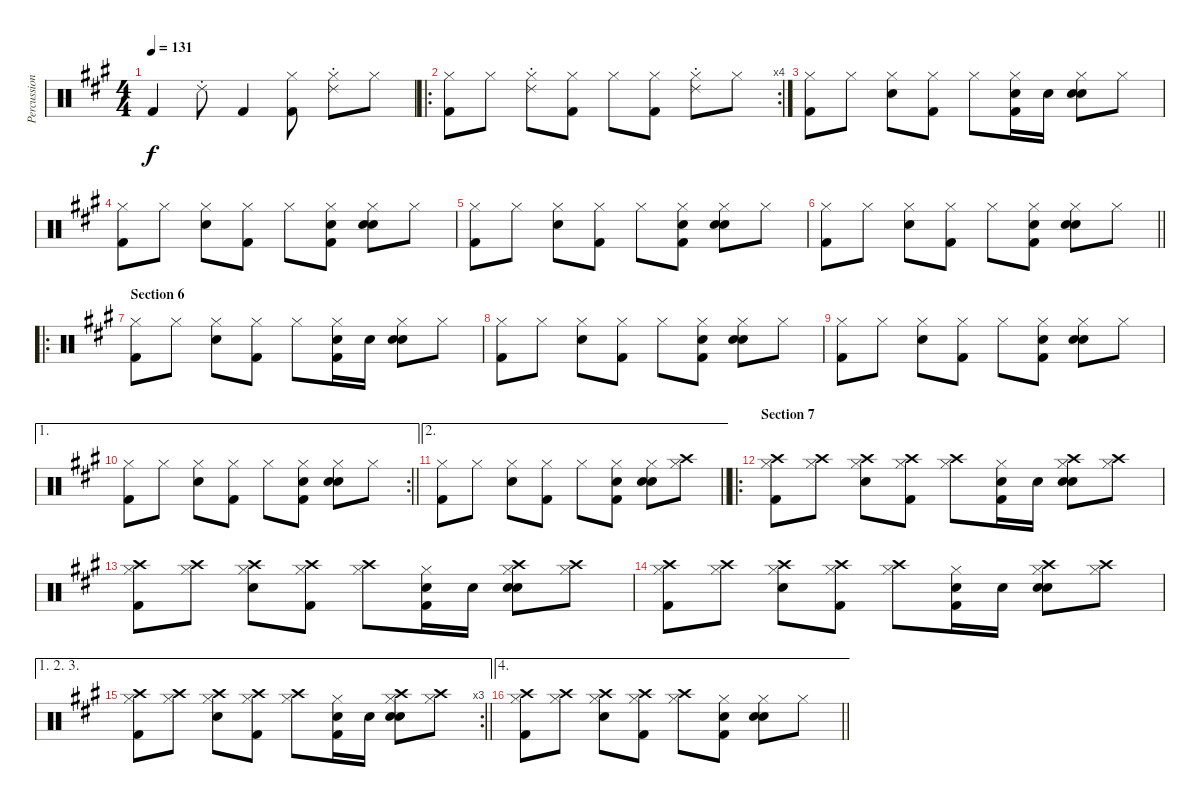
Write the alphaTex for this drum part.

\track ("Percussion" "Percussion") {instrument percussion bank 2}
\staff {score}
\articulation defaults
\ts (4 4)
\tempo 131
\clef neutral
\ks f#minor "Kick (hit) 2".4{dy f} "Ride (choke) 2".8 "Kick (hit) 2".4
("Hi-Hat (closed)" "Kick (hit) 2").8 ("Hi-Hat (closed)" "Ride (choke) 2").8 "Hi-Hat (closed)".8 |
\ro
\rc 4
("Hi-Hat (closed)" "Kick (hit) 2").8 "Hi-Hat (closed)".8 ("Hi-Hat (closed)" "Ride (choke) 2").8 ("Hi-Hat (closed)" "Kick (hit) 2").8 "Hi-Hat (closed)".8 ("Hi-Hat (closed)" "Kick (hit) 2").8 ("Hi-Hat (closed)" "Ride (choke) 2").8 "Hi-Hat (closed)".8 |
("Hi-Hat (closed)" "Kick (hit) 2").8 "Hi-Hat (closed)".8 ("Hi-Hat (closed)" "Snare (hit) 2").8 ("Hi-Hat (closed)" "Kick (hit) 2").8 "Hi-Hat (closed)".8 ("Hi-Hat (closed)" "Hand Clap (hit)" "Kick (hit) 2").16 "Hand Clap (hit)".16 ("Hi-Hat (closed)" "Hand Clap (hit)" "Snare (hit) 2").8 "Hi-Hat (closed)".8 |
("Hi-Hat (closed)" "Kick (hit) 2").8 "Hi-Hat (closed)".8 ("Hi-Hat (closed)" "Snare (hit) 2").8 ("Hi-Hat (closed)" "Kick (hit) 2").8 "Hi-Hat (closed)".8 ("Hi-Hat (closed)" "Hand Clap (hit)" "Kick (hit) 2").8 ("Hi-Hat (closed)" "Hand Clap (hit)" "Snare (hit) 2").8 "Hi-Hat (closed)".8 |
("Hi-Hat (closed)" "Kick (hit) 2").8 "Hi-Hat (closed)".8 ("Hi-Hat (closed)" "Snare (hit) 2").8 ("Hi-Hat (closed)" "Kick (hit) 2").8 "Hi-Hat (closed)".8 ("Hi-Hat (closed)" "Hand Clap (hit)" "Kick (hit) 2").8 ("Hi-Hat (closed)" "Hand Clap (hit)" "Snare (hit) 2").8 "Hi-Hat (closed)".8 |
\barLineRight lightlight
("Hi-Hat (closed)" "Kick (hit) 2").8 "Hi-Hat (closed)".8 ("Hi-Hat (closed)" "Snare (hit) 2").8 ("Hi-Hat (closed)" "Kick (hit) 2").8 "Hi-Hat (closed)".8 ("Hi-Hat (closed)" "Hand Clap (hit)" "Kick (hit) 2").8 ("Hi-Hat (closed)" "Hand Clap (hit)" "Snare (hit) 2").8 "Hi-Hat (closed)".8 |
\ro
\section ("" "Section 6")
("Hi-Hat (closed)" "Kick (hit) 2").8 "Hi-Hat (closed)".8 ("Hi-Hat (closed)" "Snare (hit) 2").8 ("Hi-Hat (closed)" "Kick (hit) 2").8 "Hi-Hat (closed)".8 ("Hi-Hat (closed)" "Hand Clap (hit)" "Kick (hit) 2").16 "Hand Clap (hit)".16 ("Hi-Hat (closed)" "Hand Clap (hit)" "Snare (hit) 2").8 "Hi-Hat (closed)".8 |
("Hi-Hat (closed)" "Kick (hit) 2").8 "Hi-Hat (closed)".8 ("Hi-Hat (closed)" "Snare (hit) 2").8 ("Hi-Hat (closed)" "Kick (hit) 2").8 "Hi-Hat (closed)".8 ("Hi-Hat (closed)" "Hand Clap (hit)" "Kick (hit) 2").8 ("Hi-Hat (closed)" "Hand Clap (hit)" "Snare (hit) 2").8 "Hi-Hat (closed)".8 |
("Hi-Hat (closed)" "Kick (hit) 2").8 "Hi-Hat (closed)".8 ("Hi-Hat (closed)" "Snare (hit) 2").8 ("Hi-Hat (closed)" "Kick (hit) 2").8 "Hi-Hat (closed)".8 ("Hi-Hat (closed)" "Hand Clap (hit)" "Kick (hit) 2").8 ("Hi-Hat (closed)" "Hand Clap (hit)" "Snare (hit) 2").8 "Hi-Hat (closed)".8 |
\ae 1
\rc 2
\barLineRight lightlight
("Hi-Hat (closed)" "Kick (hit) 2").8 "Hi-Hat (closed)".8 ("Hi-Hat (closed)" "Snare (hit) 2").8 ("Hi-Hat (closed)" "Kick (hit) 2").8 "Hi-Hat (closed)".8 ("Hi-Hat (closed)" "Hand Clap (hit)" "Kick (hit) 2").8 ("Hi-Hat (closed)" "Hand Clap (hit)" "Snare (hit) 2").8 "Hi-Hat (closed)".8 |
\ae 2
\barLineRight lightlight
("Hi-Hat (closed)" "Kick (hit) 2").8 "Hi-Hat (closed)".8 ("Hi-Hat (closed)" "Snare (hit) 2").8 ("Hi-Hat (closed)" "Kick (hit) 2").8 "Hi-Hat (closed)".8 ("Hi-Hat (closed)" "Hand Clap (hit)" "Kick (hit) 2").8 ("Hi-Hat (closed)" "Hand Clap (hit)" "Snare (hit) 2").8 ("Crash high (hit)" "Hi-Hat (closed)").8 |
\ro
\section ("" "Section 7")
("Crash high (hit)" "Hi-Hat (closed)" "Kick (hit) 2").8 ("Crash high (hit)" "Hi-Hat (closed)").8 ("Crash high (hit)" "Hi-Hat (closed)" "Snare (hit) 2").8 ("Crash high (hit)" "Hi-Hat (closed)" "Kick (hit) 2").8 ("Crash high (hit)" "Hi-Hat (closed)").8 ("Hi-Hat (closed)" "Hand Clap (hit)" "Kick (hit) 2").16 "Hand Clap (hit)".16 ("Crash high (hit)" "Hi-Hat (closed)" "Hand Clap (hit)" "Snare (hit) 2").8 ("Crash high (hit)" "Hi-Hat (closed)").8 |
("Crash high (hit)" "Hi-Hat (closed)" "Kick (hit) 2").8 ("Crash high (hit)" "Hi-Hat (closed)").8 ("Crash high (hit)" "Hi-Hat (closed)" "Snare (hit) 2").8 ("Crash high (hit)" "Hi-Hat (closed)" "Kick (hit) 2").8 ("Crash high (hit)" "Hi-Hat (closed)").8 ("Hi-Hat (closed)" "Hand Clap (hit)" "Kick (hit) 2").16 "Hand Clap (hit)".16 ("Crash high (hit)" "Hi-Hat (closed)" "Hand Clap (hit)" "Snare (hit) 2").8 ("Crash high (hit)" "Hi-Hat (closed)").8 |
("Crash high (hit)" "Hi-Hat (closed)" "Kick (hit) 2").8 ("Crash high (hit)" "Hi-Hat (closed)").8 ("Crash high (hit)" "Hi-Hat (closed)" "Snare (hit) 2").8 ("Crash high (hit)" "Hi-Hat (closed)" "Kick (hit) 2").8 ("Crash high (hit)" "Hi-Hat (closed)").8 ("Hi-Hat (closed)" "Hand Clap (hit)" "Kick (hit) 2").16 "Hand Clap (hit)".16 ("Crash high (hit)" "Hi-Hat (closed)" "Hand Clap (hit)" "Snare (hit) 2").8 ("Crash high (hit)" "Hi-Hat (closed)").8 |
\ae (1 2 3)
\rc 3
\barLineRight lightlight
("Crash high (hit)" "Hi-Hat (closed)" "Kick (hit) 2").8 ("Crash high (hit)" "Hi-Hat (closed)").8 ("Crash high (hit)" "Hi-Hat (closed)" "Snare (hit) 2").8 ("Crash high (hit)" "Hi-Hat (closed)" "Kick (hit) 2").8 ("Crash high (hit)" "Hi-Hat (closed)").8 ("Hi-Hat (closed)" "Hand Clap (hit)" "Kick (hit) 2").16 "Hand Clap (hit)".16 ("Crash high (hit)" "Hi-Hat (closed)" "Hand Clap (hit)" "Snare (hit) 2").8 ("Crash high (hit)" "Hi-Hat (closed)").8 |
\ae 4
\barLineRight lightlight
("Crash high (hit)" "Hi-Hat (closed)" "Kick (hit) 2").8 ("Crash high (hit)" "Hi-Hat (closed)").8 ("Crash high (hit)" "Hi-Hat (closed)" "Snare (hit) 2").8 ("Crash high (hit)" "Hi-Hat (closed)" "Kick (hit) 2").8 ("Crash high (hit)" "Hi-Hat (closed)").8 ("Hi-Hat (closed)" "Hand Clap (hit)" "Kick (hit) 2").8 ("Hi-Hat (closed)" "Hand Clap (hit)" "Snare (hit) 2").8 "Hi-Hat (closed)".8
